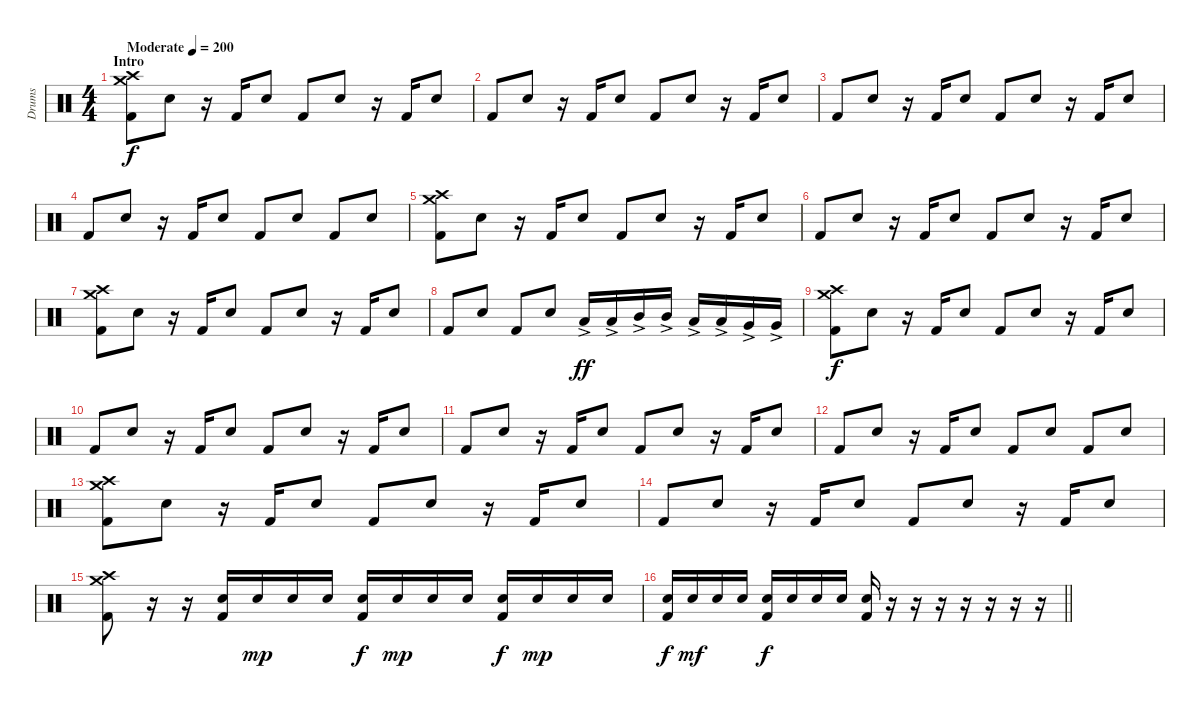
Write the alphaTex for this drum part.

\track ("Drums" "Drums") {instrument percussion}
\staff {score}
\articulation defaults
\ts (4 4)
\section ("" "Intro")
\tempo (200 "Moderate")
\clef neutral
\ks c
("Crash medium (hit)" "Crash high (hit)" "Kick (hit) 2").8{dy f} "Electric Snare (hit)".8 r.16 "Kick (hit) 2".16 "Electric Snare (hit)".8 "Kick (hit) 2".8 "Electric Snare (hit)".8 r.16 "Kick (hit) 2".16 "Electric Snare (hit)".8 |
"Kick (hit) 2".8 "Electric Snare (hit)".8 r.16 "Kick (hit) 2".16 "Electric Snare (hit)".8 "Kick (hit) 2".8 "Electric Snare (hit)".8 r.16 "Kick (hit) 2".16 "Electric Snare (hit)".8 |
"Kick (hit) 2".8 "Electric Snare (hit)".8 r.16 "Kick (hit) 2".16 "Electric Snare (hit)".8 "Kick (hit) 2".8 "Electric Snare (hit)".8 r.16 "Kick (hit) 2".16 "Electric Snare (hit)".8 |
"Kick (hit) 2".8 "Electric Snare (hit)".8 r.16 "Kick (hit) 2".16 "Electric Snare (hit)".8 "Kick (hit) 2".8 "Electric Snare (hit)".8 "Kick (hit) 2".8 "Electric Snare (hit)".8 |
("Crash medium (hit)" "Crash high (hit)" "Kick (hit) 2").8 "Electric Snare (hit)".8 r.16 "Kick (hit) 2".16 "Electric Snare (hit)".8 "Kick (hit) 2".8 "Electric Snare (hit)".8 r.16 "Kick (hit) 2".16 "Electric Snare (hit)".8 |
"Kick (hit) 2".8 "Electric Snare (hit)".8 r.16 "Kick (hit) 2".16 "Electric Snare (hit)".8 "Kick (hit) 2".8 "Electric Snare (hit)".8 r.16 "Kick (hit) 2".16 "Electric Snare (hit)".8 |
("Crash medium (hit)" "Crash high (hit)" "Kick (hit) 2").8 "Electric Snare (hit)".8 r.16 "Kick (hit) 2".16 "Electric Snare (hit)".8 "Kick (hit) 2".8 "Electric Snare (hit)".8 r.16 "Kick (hit) 2".16 "Electric Snare (hit)".8 |
"Kick (hit) 2".8 "Electric Snare (hit)".8 "Kick (hit) 2".8 "Electric Snare (hit)".8 "Low Tom (hit)"{ac}.16{dy ff} "Low Tom (hit)"{ac}.16 "Mid Tom (hit)"{ac}.16 "Mid Tom (hit)"{ac}.16 "Low Tom (hit)"{ac}.16 "Low Tom (hit)"{ac}.16 "Very Low Tom (hit)"{ac}.16 "Very Low Tom (hit)"{ac}.16 |
("Crash medium (hit)" "Crash high (hit)" "Kick (hit) 2").8{dy f} "Electric Snare (hit)".8 r.16 "Kick (hit) 2".16 "Electric Snare (hit)".8 "Kick (hit) 2".8 "Electric Snare (hit)".8 r.16 "Kick (hit) 2".16 "Electric Snare (hit)".8 |
"Kick (hit) 2".8 "Electric Snare (hit)".8 r.16 "Kick (hit) 2".16 "Electric Snare (hit)".8 "Kick (hit) 2".8 "Electric Snare (hit)".8 r.16 "Kick (hit) 2".16 "Electric Snare (hit)".8 |
"Kick (hit) 2".8 "Electric Snare (hit)".8 r.16 "Kick (hit) 2".16 "Electric Snare (hit)".8 "Kick (hit) 2".8 "Electric Snare (hit)".8 r.16 "Kick (hit) 2".16 "Electric Snare (hit)".8 |
"Kick (hit) 2".8 "Electric Snare (hit)".8 r.16 "Kick (hit) 2".16 "Electric Snare (hit)".8 "Kick (hit) 2".8 "Electric Snare (hit)".8 "Kick (hit) 2".8 "Electric Snare (hit)".8 |
("Crash medium (hit)" "Crash high (hit)" "Kick (hit) 2").8 "Electric Snare (hit)".8 r.16 "Kick (hit) 2".16 "Electric Snare (hit)".8 "Kick (hit) 2".8 "Electric Snare (hit)".8 r.16 "Kick (hit) 2".16 "Electric Snare (hit)".8 |
"Kick (hit) 2".8 "Electric Snare (hit)".8 r.16 "Kick (hit) 2".16 "Electric Snare (hit)".8 "Kick (hit) 2".8 "Electric Snare (hit)".8 r.16 "Kick (hit) 2".16 "Electric Snare (hit)".8 |
("Crash medium (hit)" "Crash high (hit)" "Kick (hit) 2").8 r.16 r.16 ("Electric Snare (hit)" "Kick (hit) 2").16 "Electric Snare (hit)".16{dy mp} "Electric Snare (hit)".16 "Electric Snare (hit)".16 ("Electric Snare (hit)" "Kick (hit) 2").16{dy f} "Electric Snare (hit)".16{dy mp} "Electric Snare (hit)".16 "Electric Snare (hit)".16 ("Electric Snare (hit)" "Kick (hit) 2").16{dy f} "Electric Snare (hit)".16{dy mp} "Electric Snare (hit)".16 "Electric Snare (hit)".16 |
\barLineRight lightlight
("Electric Snare (hit)" "Kick (hit) 2").16{dy f} "Electric Snare (hit)".16{dy mf} "Electric Snare (hit)".16 "Electric Snare (hit)".16 ("Electric Snare (hit)" "Kick (hit) 2").16{dy f} "Electric Snare (hit)".16 "Electric Snare (hit)".16 "Electric Snare (hit)".16 ("Electric Snare (hit)" "Kick (hit) 2").16 r.16 r.16 r.16 r.16 r.16 r.16 r.16
